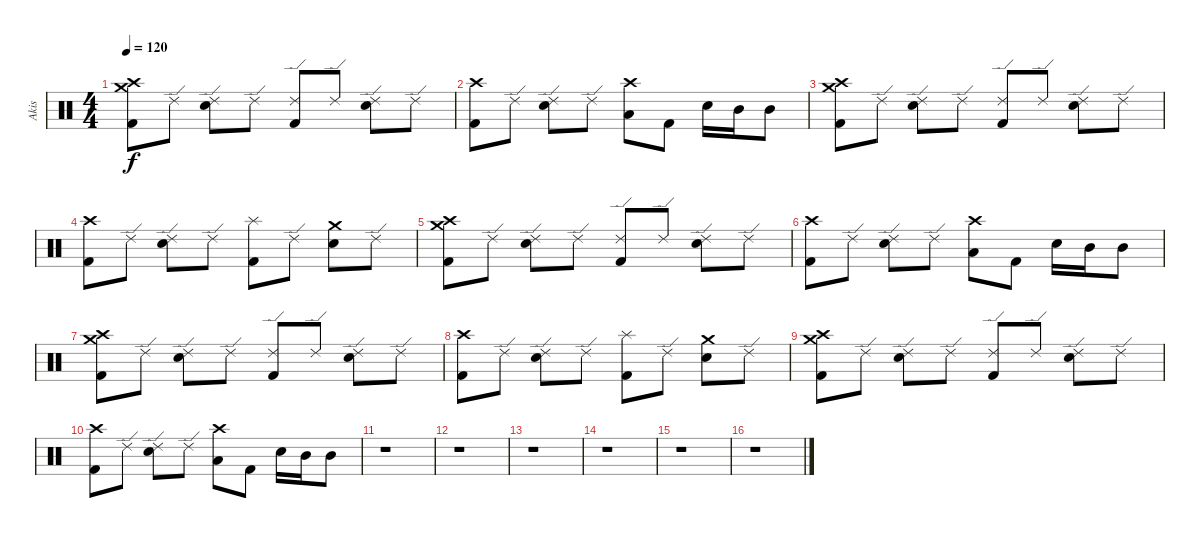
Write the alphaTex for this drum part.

\track ("Akis" "Akis") {instrument percussion}
\staff {score}
\articulation defaults
\ts (4 4)
\tempo 120
\clef neutral
\ks c
("Crash high (hit)" "Kick (hit) 2" "Crash medium (hit)").8{dy f} "Ride (edge) 2".8 ("Ride (edge) 2" "Electric Snare (hit)").8 "Ride (edge) 2".8 ("Ride (edge) 2" "Kick (hit) 2").8 "Ride (edge) 2".8 ("Ride (edge) 2" "Electric Snare (hit)").8 "Ride (edge) 2".8 |
("Crash high (hit)" "Kick (hit) 2").8 "Ride (edge) 2".8 ("Ride (edge) 2" "Electric Snare (hit)").8 "Ride (edge) 2".8 ("Crash high (hit)" "Low Tom (hit)").8 "Kick (hit) 2".8 "Electric Snare (hit)".16 "Mid Tom (hit)".16 "Mid Tom (hit)".8 |
("Crash high (hit)" "Kick (hit) 2" "Crash medium (hit)").8 "Ride (edge) 2".8 ("Ride (edge) 2" "Electric Snare (hit)").8 "Ride (edge) 2".8 ("Ride (edge) 2" "Kick (hit) 2").8 "Ride (edge) 2".8 ("Ride (edge) 2" "Electric Snare (hit)").8 "Ride (edge) 2".8 |
("Crash high (hit)" "Kick (hit) 2").8 "Ride (edge) 2".8 ("Ride (edge) 2" "Electric Snare (hit)").8 "Ride (edge) 2".8 ("Splash (hit)" "Kick (hit) 2").8 "Ride (edge) 2".8 ("Crash medium (hit)" "Electric Snare (hit)").8 "Ride (edge) 2".8 |
("Crash high (hit)" "Kick (hit) 2" "Crash medium (hit)").8 "Ride (edge) 2".8 ("Ride (edge) 2" "Electric Snare (hit)").8 "Ride (edge) 2".8 ("Ride (edge) 2" "Kick (hit) 2").8 "Ride (edge) 2".8 ("Ride (edge) 2" "Electric Snare (hit)").8 "Ride (edge) 2".8 |
("Crash high (hit)" "Kick (hit) 2").8 "Ride (edge) 2".8 ("Ride (edge) 2" "Electric Snare (hit)").8 "Ride (edge) 2".8 ("Crash high (hit)" "Low Tom (hit)").8 "Kick (hit) 2".8 "Snare (hit) 2".16 "Mid Tom (hit)".16 "Mid Tom (hit)".8 |
("Crash high (hit)" "Kick (hit) 2" "Crash medium (hit)").8 "Ride (edge) 2".8 ("Ride (edge) 2" "Electric Snare (hit)").8 "Ride (edge) 2".8 ("Ride (edge) 2" "Kick (hit) 2").8 "Ride (edge) 2".8 ("Ride (edge) 2" "Electric Snare (hit)").8 "Ride (edge) 2".8 |
("Crash high (hit)" "Kick (hit) 2").8 "Ride (edge) 2".8 ("Ride (edge) 2" "Electric Snare (hit)").8 "Ride (edge) 2".8 ("Splash (hit)" "Kick (hit) 2").8 "Ride (edge) 2".8 ("Crash medium (hit)" "Electric Snare (hit)").8 "Ride (edge) 2".8 |
("Crash high (hit)" "Kick (hit) 2" "Crash medium (hit)").8 "Ride (edge) 2".8 ("Ride (edge) 2" "Electric Snare (hit)").8 "Ride (edge) 2".8 ("Ride (edge) 2" "Kick (hit) 2").8 "Ride (edge) 2".8 ("Ride (edge) 2" "Electric Snare (hit)").8 "Ride (edge) 2".8 |
("Crash high (hit)" "Kick (hit) 2").8 "Ride (edge) 2".8 ("Ride (edge) 2" "Electric Snare (hit)").8 "Ride (edge) 2".8 ("Crash high (hit)" "Low Tom (hit)").8 "Kick (hit) 2".8 "Snare (hit) 2".16 "Mid Tom (hit)".16 "Mid Tom (hit)".8 |
r.1 |
r.1 |
r.1 |
r.1 |
r.1 |
r.1
